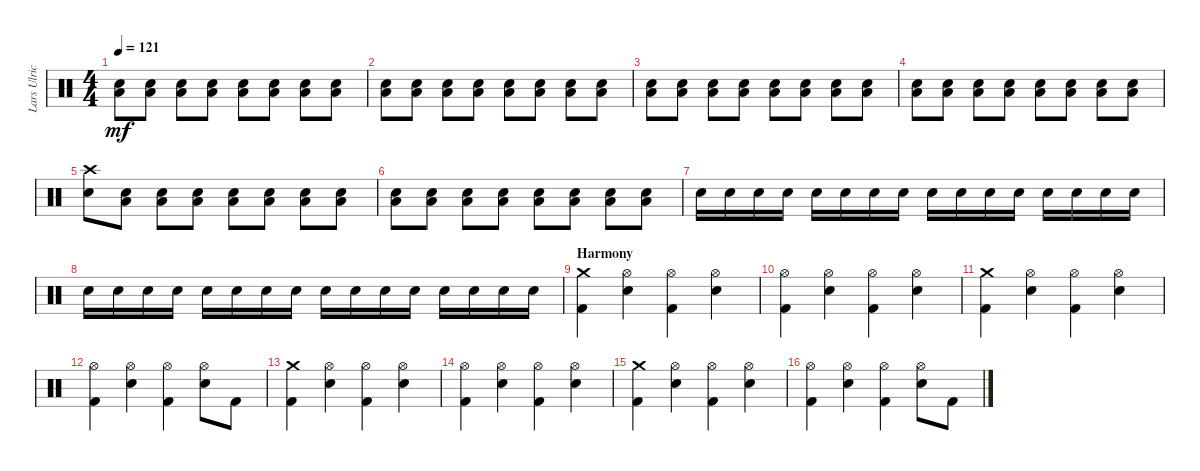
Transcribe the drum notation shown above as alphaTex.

\track ("Lars Ulrich" "Lars Ulric") {instrument percussion}
\staff {score}
\articulation defaults
\ts (4 4)
\tempo 121
\clef neutral
\ks c
("Snare (hit) 2" "Low Tom (hit)").8{dy mf} ("Snare (hit) 2" "Low Tom (hit)").8 ("Snare (hit) 2" "Low Tom (hit)").8 ("Snare (hit) 2" "Low Tom (hit)").8 ("Snare (hit) 2" "Low Tom (hit)").8 ("Snare (hit) 2" "Low Tom (hit)").8 ("Snare (hit) 2" "Low Tom (hit)").8 ("Snare (hit) 2" "Low Tom (hit)").8 |
("Snare (hit) 2" "Low Tom (hit)").8 ("Snare (hit) 2" "Low Tom (hit)").8 ("Snare (hit) 2" "Low Tom (hit)").8 ("Snare (hit) 2" "Low Tom (hit)").8 ("Snare (hit) 2" "Low Tom (hit)").8 ("Snare (hit) 2" "Low Tom (hit)").8 ("Snare (hit) 2" "Low Tom (hit)").8 ("Snare (hit) 2" "Low Tom (hit)").8 |
("Snare (hit) 2" "Low Tom (hit)").8 ("Snare (hit) 2" "Low Tom (hit)").8 ("Snare (hit) 2" "Low Tom (hit)").8 ("Snare (hit) 2" "Low Tom (hit)").8 ("Snare (hit) 2" "Low Tom (hit)").8 ("Snare (hit) 2" "Low Tom (hit)").8 ("Snare (hit) 2" "Low Tom (hit)").8 ("Snare (hit) 2" "Low Tom (hit)").8 |
("Snare (hit) 2" "Low Tom (hit)").8 ("Snare (hit) 2" "Low Tom (hit)").8 ("Snare (hit) 2" "Low Tom (hit)").8 ("Snare (hit) 2" "Low Tom (hit)").8 ("Snare (hit) 2" "Low Tom (hit)").8 ("Snare (hit) 2" "Low Tom (hit)").8 ("Snare (hit) 2" "Low Tom (hit)").8 ("Snare (hit) 2" "Low Tom (hit)").8 |
("Snare (hit) 2" "Crash high (hit)").8 ("Snare (hit) 2" "Low Tom (hit)").8 ("Snare (hit) 2" "Low Tom (hit)").8 ("Snare (hit) 2" "Low Tom (hit)").8 ("Snare (hit) 2" "Low Tom (hit)").8 ("Snare (hit) 2" "Low Tom (hit)").8 ("Snare (hit) 2" "Low Tom (hit)").8 ("Snare (hit) 2" "Low Tom (hit)").8 |
("Snare (hit) 2" "Low Tom (hit)").8 ("Snare (hit) 2" "Low Tom (hit)").8 ("Snare (hit) 2" "Low Tom (hit)").8 ("Snare (hit) 2" "Low Tom (hit)").8 ("Snare (hit) 2" "Low Tom (hit)").8 ("Snare (hit) 2" "Low Tom (hit)").8 ("Snare (hit) 2" "Low Tom (hit)").8 ("Snare (hit) 2" "Low Tom (hit)").8 |
"Snare (hit) 2".16 "Snare (hit) 2".16 "Snare (hit) 2".16 "Snare (hit) 2".16 "Snare (hit) 2".16 "Snare (hit) 2".16 "Snare (hit) 2".16 "Snare (hit) 2".16 "Snare (hit) 2".16 "Snare (hit) 2".16 "Snare (hit) 2".16 "Snare (hit) 2".16 "Snare (hit) 2".16 "Snare (hit) 2".16 "Snare (hit) 2".16 "Snare (hit) 2".16 |
"Snare (hit) 2".16 "Snare (hit) 2".16 "Snare (hit) 2".16 "Snare (hit) 2".16 "Snare (hit) 2".16 "Snare (hit) 2".16 "Snare (hit) 2".16 "Snare (hit) 2".16 "Snare (hit) 2".16 "Snare (hit) 2".16 "Snare (hit) 2".16 "Snare (hit) 2".16 "Snare (hit) 2".16 "Snare (hit) 2".16 "Snare (hit) 2".16 "Snare (hit) 2".16 |
\section ("" "Harmony")
("Kick (hit) 2" "Crash medium (hit)").4 ("Hi-Hat (open)" "Snare (hit) 2").4 ("Hi-Hat (open)" "Kick (hit) 2").4 ("Hi-Hat (open)" "Snare (hit) 2").4 |
("Hi-Hat (open)" "Kick (hit) 2").4 ("Hi-Hat (open)" "Snare (hit) 2").4 ("Hi-Hat (open)" "Kick (hit) 2").4 ("Hi-Hat (open)" "Snare (hit) 2").4 |
("Kick (hit) 2" "Crash medium (hit)").4 ("Hi-Hat (open)" "Snare (hit) 2").4 ("Hi-Hat (open)" "Kick (hit) 2").4 ("Hi-Hat (open)" "Snare (hit) 2").4 |
("Hi-Hat (open)" "Kick (hit) 2").4 ("Hi-Hat (open)" "Snare (hit) 2").4 ("Hi-Hat (open)" "Kick (hit) 2").4 ("Hi-Hat (open)" "Snare (hit) 2").8 "Kick (hit) 2".8 |
("Kick (hit) 2" "Crash medium (hit)").4 ("Hi-Hat (open)" "Snare (hit) 2").4 ("Hi-Hat (open)" "Kick (hit) 2").4 ("Hi-Hat (open)" "Snare (hit) 2").4 |
("Hi-Hat (open)" "Kick (hit) 2").4 ("Hi-Hat (open)" "Snare (hit) 2").4 ("Hi-Hat (open)" "Kick (hit) 2").4 ("Hi-Hat (open)" "Snare (hit) 2").4 |
("Kick (hit) 2" "Crash medium (hit)").4 ("Hi-Hat (open)" "Snare (hit) 2").4 ("Hi-Hat (open)" "Kick (hit) 2").4 ("Hi-Hat (open)" "Snare (hit) 2").4 |
("Hi-Hat (open)" "Kick (hit) 2").4 ("Hi-Hat (open)" "Snare (hit) 2").4 ("Hi-Hat (open)" "Kick (hit) 2").4 ("Hi-Hat (open)" "Snare (hit) 2").8 "Kick (hit) 2".8
